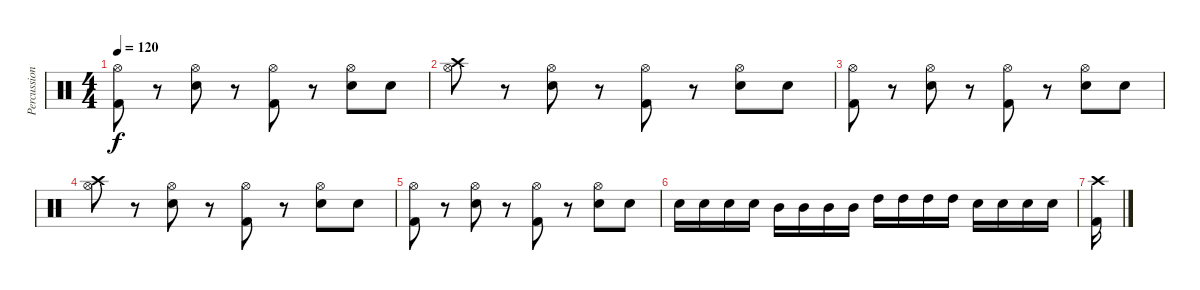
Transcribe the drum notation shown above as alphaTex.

\track ("Percussion" "Percussion") {instrument percussion}
\staff {score}
\articulation defaults
\ts (4 4)
\tempo 120
\clef neutral
\ks c
("Kick (hit) 2" "Hi-Hat (open)").8{dy f} r.8 ("Electric Snare (hit)" "Hi-Hat (open)").8 r.8 ("Kick (hit) 2" "Hi-Hat (open)").8 r.8 ("Electric Snare (hit)" "Hi-Hat (open)").8 "Snare (hit)".8 |
("Crash high (hit)" "Hi-Hat (open)").8 r.8 ("Electric Snare (hit)" "Hi-Hat (open)").8 r.8 ("Kick (hit) 2" "Hi-Hat (open)").8 r.8 ("Electric Snare (hit)" "Hi-Hat (open)").8 "Snare (hit)".8 |
("Kick (hit) 2" "Hi-Hat (open)").8 r.8 ("Electric Snare (hit)" "Hi-Hat (open)").8 r.8 ("Kick (hit) 2" "Hi-Hat (open)").8 r.8 ("Electric Snare (hit)" "Hi-Hat (open)").8 "Snare (hit)".8 |
("Crash high (hit)" "Hi-Hat (open)").8 r.8 ("Electric Snare (hit)" "Hi-Hat (open)").8 r.8 ("Kick (hit) 2" "Hi-Hat (open)").8 r.8 ("Electric Snare (hit)" "Hi-Hat (open)").8 "Snare (hit)".8 |
("Kick (hit) 2" "Hi-Hat (open)").8 r.8 ("Electric Snare (hit)" "Hi-Hat (open)").8 r.8 ("Kick (hit) 2" "Hi-Hat (open)").8 r.8 ("Electric Snare (hit)" "Hi-Hat (open)").8 "Snare (hit)".8 |
"Electric Snare (hit)".16 "Electric Snare (hit)".16 "Electric Snare (hit)".16 "Electric Snare (hit)".16 "Mid Tom (hit)".16 "Mid Tom (hit)".16 "Mid Tom (hit)".16 "Mid Tom (hit)".16 "High Tom (hit)".16 "High Tom (hit)".16 "High Tom (hit)".16 "High Tom (hit)".16 "Electric Snare (hit)".16 "Electric Snare (hit)".16 "Electric Snare (hit)".16 "Electric Snare (hit)".16 |
("Crash high (hit)" "Kick (hit) 2").16
